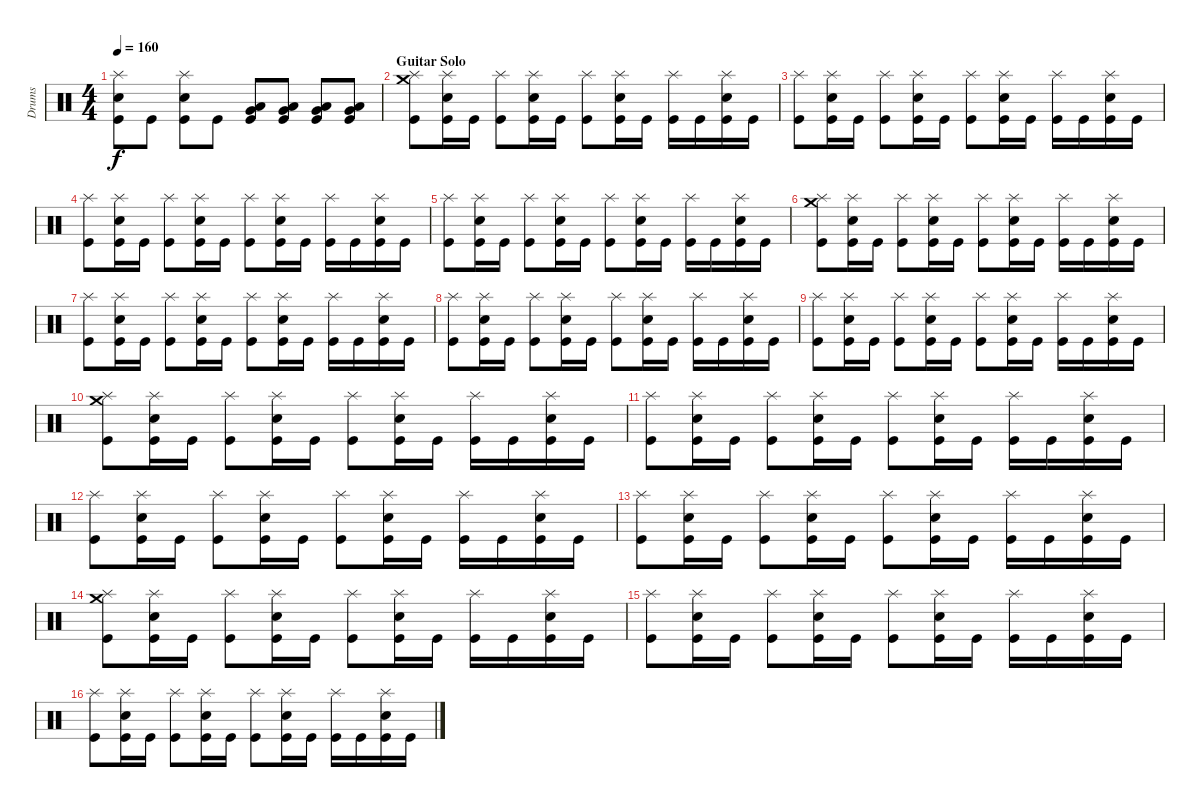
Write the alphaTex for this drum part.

\track ("Drums" "Drums") {instrument percussion}
\staff {score}
\articulation defaults
\ts (4 4)
\tempo 160
\clef neutral
\ks c
("Splash (hit)" "Electric Snare (hit)" "Kick (hit)").8{dy f} "Kick (hit)".8 ("Splash (hit)" "Electric Snare (hit)" "Kick (hit)").8 "Kick (hit)".8 ("Low Tom (hit)" "Very Low Tom (hit)" "Kick (hit)").8 ("Low Tom (hit)" "Very Low Tom (hit)" "Kick (hit)").8 ("Very Low Tom (hit)" "Low Floor Tom (hit)" "Kick (hit)").8 ("Very Low Tom (hit)" "Low Floor Tom (hit)" "Kick (hit)").8 |
\section ("" "Guitar Solo")
("Crash medium (hit)" "Splash (hit)" "Kick (hit)").8 ("Splash (hit)" "Electric Snare (hit)" "Kick (hit)").16 "Kick (hit)".16 ("Splash (hit)" "Kick (hit)").8 ("Splash (hit)" "Electric Snare (hit)" "Kick (hit)").16 "Kick (hit)".16 ("Splash (hit)" "Kick (hit)").8 ("Splash (hit)" "Electric Snare (hit)" "Kick (hit)").16 "Kick (hit)".16 ("Splash (hit)" "Kick (hit)").16 "Kick (hit)".16 ("Splash (hit)" "Electric Snare (hit)" "Kick (hit)").16 "Kick (hit)".16 |
("Splash (hit)" "Kick (hit)").8 ("Splash (hit)" "Electric Snare (hit)" "Kick (hit)").16 "Kick (hit)".16 ("Splash (hit)" "Kick (hit)").8 ("Splash (hit)" "Electric Snare (hit)" "Kick (hit)").16 "Kick (hit)".16 ("Splash (hit)" "Kick (hit)").8 ("Splash (hit)" "Electric Snare (hit)" "Kick (hit)").16 "Kick (hit)".16 ("Splash (hit)" "Kick (hit)").16 "Kick (hit)".16 ("Splash (hit)" "Electric Snare (hit)" "Kick (hit)").16 "Kick (hit)".16 |
("Splash (hit)" "Kick (hit)").8 ("Splash (hit)" "Electric Snare (hit)" "Kick (hit)").16 "Kick (hit)".16 ("Splash (hit)" "Kick (hit)").8 ("Splash (hit)" "Electric Snare (hit)" "Kick (hit)").16 "Kick (hit)".16 ("Splash (hit)" "Kick (hit)").8 ("Splash (hit)" "Electric Snare (hit)" "Kick (hit)").16 "Kick (hit)".16 ("Splash (hit)" "Kick (hit)").16 "Kick (hit)".16 ("Splash (hit)" "Electric Snare (hit)" "Kick (hit)").16 "Kick (hit)".16 |
("Splash (hit)" "Kick (hit)").8 ("Splash (hit)" "Electric Snare (hit)" "Kick (hit)").16 "Kick (hit)".16 ("Splash (hit)" "Kick (hit)").8 ("Splash (hit)" "Electric Snare (hit)" "Kick (hit)").16 "Kick (hit)".16 ("Splash (hit)" "Kick (hit)").8 ("Splash (hit)" "Electric Snare (hit)" "Kick (hit)").16 "Kick (hit)".16 ("Splash (hit)" "Kick (hit)").16 "Kick (hit)".16 ("Splash (hit)" "Electric Snare (hit)" "Kick (hit)").16 "Kick (hit)".16 |
("Crash medium (hit)" "Splash (hit)" "Kick (hit)").8 ("Splash (hit)" "Electric Snare (hit)" "Kick (hit)").16 "Kick (hit)".16 ("Splash (hit)" "Kick (hit)").8 ("Splash (hit)" "Electric Snare (hit)" "Kick (hit)").16 "Kick (hit)".16 ("Splash (hit)" "Kick (hit)").8 ("Splash (hit)" "Electric Snare (hit)" "Kick (hit)").16 "Kick (hit)".16 ("Splash (hit)" "Kick (hit)").16 "Kick (hit)".16 ("Splash (hit)" "Electric Snare (hit)" "Kick (hit)").16 "Kick (hit)".16 |
("Splash (hit)" "Kick (hit)").8 ("Splash (hit)" "Electric Snare (hit)" "Kick (hit)").16 "Kick (hit)".16 ("Splash (hit)" "Kick (hit)").8 ("Splash (hit)" "Electric Snare (hit)" "Kick (hit)").16 "Kick (hit)".16 ("Splash (hit)" "Kick (hit)").8 ("Splash (hit)" "Electric Snare (hit)" "Kick (hit)").16 "Kick (hit)".16 ("Splash (hit)" "Kick (hit)").16 "Kick (hit)".16 ("Splash (hit)" "Electric Snare (hit)" "Kick (hit)").16 "Kick (hit)".16 |
("Splash (hit)" "Kick (hit)").8 ("Splash (hit)" "Electric Snare (hit)" "Kick (hit)").16 "Kick (hit)".16 ("Splash (hit)" "Kick (hit)").8 ("Splash (hit)" "Electric Snare (hit)" "Kick (hit)").16 "Kick (hit)".16 ("Splash (hit)" "Kick (hit)").8 ("Splash (hit)" "Electric Snare (hit)" "Kick (hit)").16 "Kick (hit)".16 ("Splash (hit)" "Kick (hit)").16 "Kick (hit)".16 ("Splash (hit)" "Electric Snare (hit)" "Kick (hit)").16 "Kick (hit)".16 |
("Splash (hit)" "Kick (hit)").8 ("Splash (hit)" "Electric Snare (hit)" "Kick (hit)").16 "Kick (hit)".16 ("Splash (hit)" "Kick (hit)").8 ("Splash (hit)" "Electric Snare (hit)" "Kick (hit)").16 "Kick (hit)".16 ("Splash (hit)" "Kick (hit)").8 ("Splash (hit)" "Electric Snare (hit)" "Kick (hit)").16 "Kick (hit)".16 ("Splash (hit)" "Kick (hit)").16 "Kick (hit)".16 ("Splash (hit)" "Electric Snare (hit)" "Kick (hit)").16 "Kick (hit)".16 |
("Crash medium (hit)" "Splash (hit)" "Kick (hit)").8 ("Splash (hit)" "Electric Snare (hit)" "Kick (hit)").16 "Kick (hit)".16 ("Splash (hit)" "Kick (hit)").8 ("Splash (hit)" "Electric Snare (hit)" "Kick (hit)").16 "Kick (hit)".16 ("Splash (hit)" "Kick (hit)").8 ("Splash (hit)" "Electric Snare (hit)" "Kick (hit)").16 "Kick (hit)".16 ("Splash (hit)" "Kick (hit)").16 "Kick (hit)".16 ("Splash (hit)" "Electric Snare (hit)" "Kick (hit)").16 "Kick (hit)".16 |
("Splash (hit)" "Kick (hit)").8 ("Splash (hit)" "Electric Snare (hit)" "Kick (hit)").16 "Kick (hit)".16 ("Splash (hit)" "Kick (hit)").8 ("Splash (hit)" "Electric Snare (hit)" "Kick (hit)").16 "Kick (hit)".16 ("Splash (hit)" "Kick (hit)").8 ("Splash (hit)" "Electric Snare (hit)" "Kick (hit)").16 "Kick (hit)".16 ("Splash (hit)" "Kick (hit)").16 "Kick (hit)".16 ("Splash (hit)" "Electric Snare (hit)" "Kick (hit)").16 "Kick (hit)".16 |
("Splash (hit)" "Kick (hit)").8 ("Splash (hit)" "Electric Snare (hit)" "Kick (hit)").16 "Kick (hit)".16 ("Splash (hit)" "Kick (hit)").8 ("Splash (hit)" "Electric Snare (hit)" "Kick (hit)").16 "Kick (hit)".16 ("Splash (hit)" "Kick (hit)").8 ("Splash (hit)" "Electric Snare (hit)" "Kick (hit)").16 "Kick (hit)".16 ("Splash (hit)" "Kick (hit)").16 "Kick (hit)".16 ("Splash (hit)" "Electric Snare (hit)" "Kick (hit)").16 "Kick (hit)".16 |
("Splash (hit)" "Kick (hit)").8 ("Splash (hit)" "Electric Snare (hit)" "Kick (hit)").16 "Kick (hit)".16 ("Splash (hit)" "Kick (hit)").8 ("Splash (hit)" "Electric Snare (hit)" "Kick (hit)").16 "Kick (hit)".16 ("Splash (hit)" "Kick (hit)").8 ("Splash (hit)" "Electric Snare (hit)" "Kick (hit)").16 "Kick (hit)".16 ("Splash (hit)" "Kick (hit)").16 "Kick (hit)".16 ("Splash (hit)" "Electric Snare (hit)" "Kick (hit)").16 "Kick (hit)".16 |
("Crash medium (hit)" "Splash (hit)" "Kick (hit)").8 ("Splash (hit)" "Electric Snare (hit)" "Kick (hit)").16 "Kick (hit)".16 ("Splash (hit)" "Kick (hit)").8 ("Splash (hit)" "Electric Snare (hit)" "Kick (hit)").16 "Kick (hit)".16 ("Splash (hit)" "Kick (hit)").8 ("Splash (hit)" "Electric Snare (hit)" "Kick (hit)").16 "Kick (hit)".16 ("Splash (hit)" "Kick (hit)").16 "Kick (hit)".16 ("Splash (hit)" "Electric Snare (hit)" "Kick (hit)").16 "Kick (hit)".16 |
("Splash (hit)" "Kick (hit)").8 ("Splash (hit)" "Electric Snare (hit)" "Kick (hit)").16 "Kick (hit)".16 ("Splash (hit)" "Kick (hit)").8 ("Splash (hit)" "Electric Snare (hit)" "Kick (hit)").16 "Kick (hit)".16 ("Splash (hit)" "Kick (hit)").8 ("Splash (hit)" "Electric Snare (hit)" "Kick (hit)").16 "Kick (hit)".16 ("Splash (hit)" "Kick (hit)").16 "Kick (hit)".16 ("Splash (hit)" "Electric Snare (hit)" "Kick (hit)").16 "Kick (hit)".16 |
("Splash (hit)" "Kick (hit)").8 ("Splash (hit)" "Electric Snare (hit)" "Kick (hit)").16 "Kick (hit)".16 ("Splash (hit)" "Kick (hit)").8 ("Splash (hit)" "Electric Snare (hit)" "Kick (hit)").16 "Kick (hit)".16 ("Splash (hit)" "Kick (hit)").8 ("Splash (hit)" "Electric Snare (hit)" "Kick (hit)").16 "Kick (hit)".16 ("Splash (hit)" "Kick (hit)").16 "Kick (hit)".16 ("Splash (hit)" "Electric Snare (hit)" "Kick (hit)").16 "Kick (hit)".16
